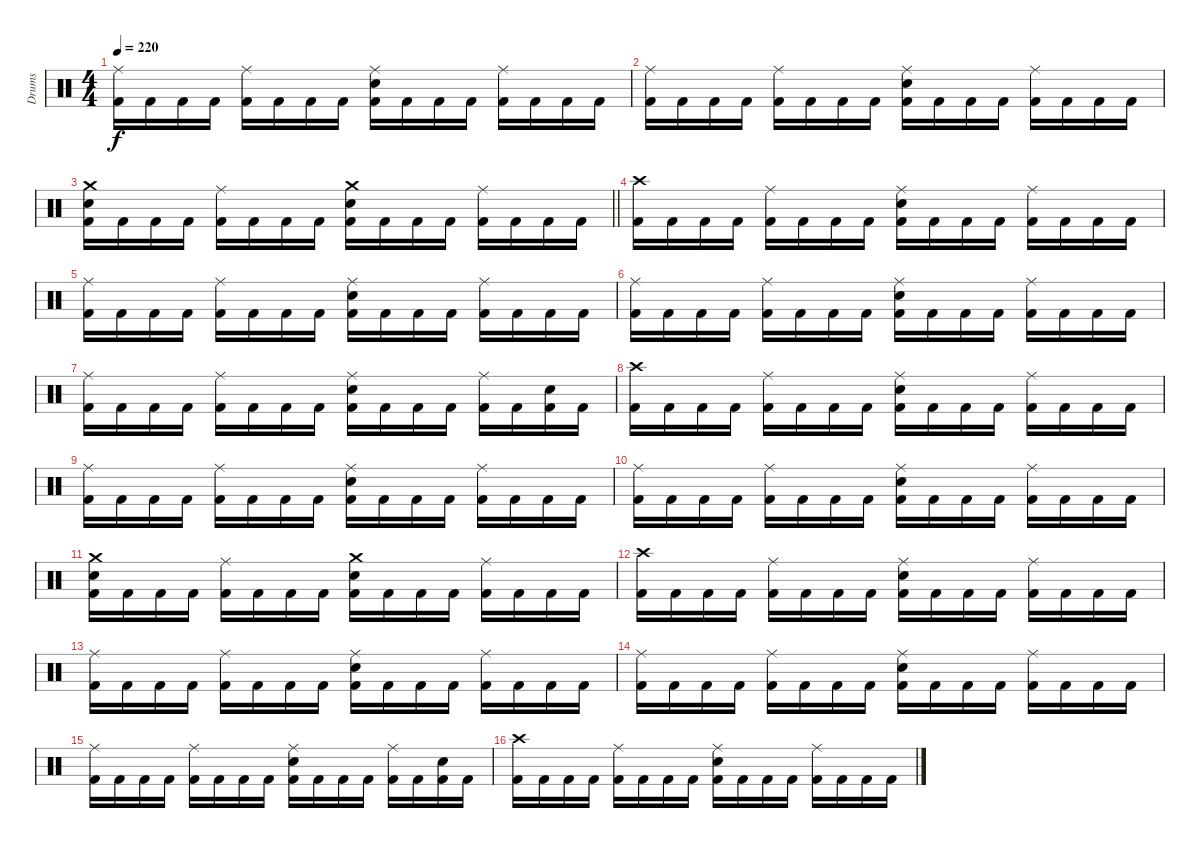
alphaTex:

\track ("Drums" "Drums") {instrument percussion}
\staff {score}
\articulation defaults
\ts (4 4)
\tempo 220
\clef neutral
\ks c
("Ride (middle)" "Kick (hit) 2").16{dy f} "Kick (hit) 2".16 "Kick (hit) 2".16 "Kick (hit) 2".16 ("Ride (middle)" "Kick (hit) 2").16 "Kick (hit) 2".16 "Kick (hit) 2".16 "Kick (hit) 2".16 ("Ride (middle)" "Snare (hit) 2" "Kick (hit) 2").16 "Kick (hit) 2".16 "Kick (hit) 2".16 "Kick (hit) 2".16 ("Ride (middle)" "Kick (hit) 2").16 "Kick (hit) 2".16 "Kick (hit) 2".16 "Kick (hit) 2".16 |
("Ride (middle)" "Kick (hit) 2").16 "Kick (hit) 2".16 "Kick (hit) 2".16 "Kick (hit) 2".16 ("Ride (middle)" "Kick (hit) 2").16 "Kick (hit) 2".16 "Kick (hit) 2".16 "Kick (hit) 2".16 ("Ride (middle)" "Snare (hit) 2" "Kick (hit) 2").16 "Kick (hit) 2".16 "Kick (hit) 2".16 "Kick (hit) 2".16 ("Ride (middle)" "Kick (hit) 2").16 "Kick (hit) 2".16 "Kick (hit) 2".16 "Kick (hit) 2".16 |
\barLineRight lightlight
("Crash medium (hit)" "Snare (hit) 2" "Kick (hit) 2").16 "Kick (hit) 2".16 "Kick (hit) 2".16 "Kick (hit) 2".16 ("Ride (middle)" "Kick (hit) 2").16 "Kick (hit) 2".16 "Kick (hit) 2".16 "Kick (hit) 2".16 ("Crash medium (hit)" "Snare (hit) 2" "Kick (hit) 2").16 "Kick (hit) 2".16 "Kick (hit) 2".16 "Kick (hit) 2".16 ("Ride (middle)" "Kick (hit) 2").16 "Kick (hit) 2".16 "Kick (hit) 2".16 "Kick (hit) 2".16 |
\section ("" "")
("Crash high (hit)" "Kick (hit) 2").16 "Kick (hit) 2".16 "Kick (hit) 2".16 "Kick (hit) 2".16 ("Ride (middle)" "Kick (hit) 2").16 "Kick (hit) 2".16 "Kick (hit) 2".16 "Kick (hit) 2".16 ("Ride (middle)" "Snare (hit) 2" "Kick (hit) 2").16 "Kick (hit) 2".16 "Kick (hit) 2".16 "Kick (hit) 2".16 ("Ride (middle)" "Kick (hit) 2").16 "Kick (hit) 2".16 "Kick (hit) 2".16 "Kick (hit) 2".16 |
("Ride (middle)" "Kick (hit) 2").16 "Kick (hit) 2".16 "Kick (hit) 2".16 "Kick (hit) 2".16 ("Ride (middle)" "Kick (hit) 2").16 "Kick (hit) 2".16 "Kick (hit) 2".16 "Kick (hit) 2".16 ("Ride (middle)" "Snare (hit) 2" "Kick (hit) 2").16 "Kick (hit) 2".16 "Kick (hit) 2".16 "Kick (hit) 2".16 ("Ride (middle)" "Kick (hit) 2").16 "Kick (hit) 2".16 "Kick (hit) 2".16 "Kick (hit) 2".16 |
("Ride (middle)" "Kick (hit) 2").16 "Kick (hit) 2".16 "Kick (hit) 2".16 "Kick (hit) 2".16 ("Ride (middle)" "Kick (hit) 2").16 "Kick (hit) 2".16 "Kick (hit) 2".16 "Kick (hit) 2".16 ("Ride (middle)" "Snare (hit) 2" "Kick (hit) 2").16 "Kick (hit) 2".16 "Kick (hit) 2".16 "Kick (hit) 2".16 ("Ride (middle)" "Kick (hit) 2").16 "Kick (hit) 2".16 "Kick (hit) 2".16 "Kick (hit) 2".16 |
("Ride (middle)" "Kick (hit) 2").16 "Kick (hit) 2".16 "Kick (hit) 2".16 "Kick (hit) 2".16 ("Ride (middle)" "Kick (hit) 2").16 "Kick (hit) 2".16 "Kick (hit) 2".16 "Kick (hit) 2".16 ("Ride (middle)" "Snare (hit) 2" "Kick (hit) 2").16 "Kick (hit) 2".16 "Kick (hit) 2".16 "Kick (hit) 2".16 ("Ride (middle)" "Kick (hit) 2").16 "Kick (hit) 2".16 ("Snare (hit) 2" "Kick (hit) 2").16 "Kick (hit) 2".16 |
("Crash high (hit)" "Kick (hit) 2").16 "Kick (hit) 2".16 "Kick (hit) 2".16 "Kick (hit) 2".16 ("Ride (middle)" "Kick (hit) 2").16 "Kick (hit) 2".16 "Kick (hit) 2".16 "Kick (hit) 2".16 ("Ride (middle)" "Snare (hit) 2" "Kick (hit) 2").16 "Kick (hit) 2".16 "Kick (hit) 2".16 "Kick (hit) 2".16 ("Ride (middle)" "Kick (hit) 2").16 "Kick (hit) 2".16 "Kick (hit) 2".16 "Kick (hit) 2".16 |
("Ride (middle)" "Kick (hit) 2").16 "Kick (hit) 2".16 "Kick (hit) 2".16 "Kick (hit) 2".16 ("Ride (middle)" "Kick (hit) 2").16 "Kick (hit) 2".16 "Kick (hit) 2".16 "Kick (hit) 2".16 ("Ride (middle)" "Snare (hit) 2" "Kick (hit) 2").16 "Kick (hit) 2".16 "Kick (hit) 2".16 "Kick (hit) 2".16 ("Ride (middle)" "Kick (hit) 2").16 "Kick (hit) 2".16 "Kick (hit) 2".16 "Kick (hit) 2".16 |
("Ride (middle)" "Kick (hit) 2").16 "Kick (hit) 2".16 "Kick (hit) 2".16 "Kick (hit) 2".16 ("Ride (middle)" "Kick (hit) 2").16 "Kick (hit) 2".16 "Kick (hit) 2".16 "Kick (hit) 2".16 ("Ride (middle)" "Snare (hit) 2" "Kick (hit) 2").16 "Kick (hit) 2".16 "Kick (hit) 2".16 "Kick (hit) 2".16 ("Ride (middle)" "Kick (hit) 2").16 "Kick (hit) 2".16 "Kick (hit) 2".16 "Kick (hit) 2".16 |
("Crash medium (hit)" "Snare (hit) 2" "Kick (hit) 2").16 "Kick (hit) 2".16 "Kick (hit) 2".16 "Kick (hit) 2".16 ("Ride (middle)" "Kick (hit) 2").16 "Kick (hit) 2".16 "Kick (hit) 2".16 "Kick (hit) 2".16 ("Crash medium (hit)" "Snare (hit) 2" "Kick (hit) 2").16 "Kick (hit) 2".16 "Kick (hit) 2".16 "Kick (hit) 2".16 ("Ride (middle)" "Kick (hit) 2").16 "Kick (hit) 2".16 "Kick (hit) 2".16 "Kick (hit) 2".16 |
("Crash high (hit)" "Kick (hit) 2").16 "Kick (hit) 2".16 "Kick (hit) 2".16 "Kick (hit) 2".16 ("Ride (middle)" "Kick (hit) 2").16 "Kick (hit) 2".16 "Kick (hit) 2".16 "Kick (hit) 2".16 ("Ride (middle)" "Snare (hit) 2" "Kick (hit) 2").16 "Kick (hit) 2".16 "Kick (hit) 2".16 "Kick (hit) 2".16 ("Ride (middle)" "Kick (hit) 2").16 "Kick (hit) 2".16 "Kick (hit) 2".16 "Kick (hit) 2".16 |
("Ride (middle)" "Kick (hit) 2").16 "Kick (hit) 2".16 "Kick (hit) 2".16 "Kick (hit) 2".16 ("Ride (middle)" "Kick (hit) 2").16 "Kick (hit) 2".16 "Kick (hit) 2".16 "Kick (hit) 2".16 ("Ride (middle)" "Snare (hit) 2" "Kick (hit) 2").16 "Kick (hit) 2".16 "Kick (hit) 2".16 "Kick (hit) 2".16 ("Ride (middle)" "Kick (hit) 2").16 "Kick (hit) 2".16 "Kick (hit) 2".16 "Kick (hit) 2".16 |
("Ride (middle)" "Kick (hit) 2").16 "Kick (hit) 2".16 "Kick (hit) 2".16 "Kick (hit) 2".16 ("Ride (middle)" "Kick (hit) 2").16 "Kick (hit) 2".16 "Kick (hit) 2".16 "Kick (hit) 2".16 ("Ride (middle)" "Snare (hit) 2" "Kick (hit) 2").16 "Kick (hit) 2".16 "Kick (hit) 2".16 "Kick (hit) 2".16 ("Ride (middle)" "Kick (hit) 2").16 "Kick (hit) 2".16 "Kick (hit) 2".16 "Kick (hit) 2".16 |
("Ride (middle)" "Kick (hit) 2").16 "Kick (hit) 2".16 "Kick (hit) 2".16 "Kick (hit) 2".16 ("Ride (middle)" "Kick (hit) 2").16 "Kick (hit) 2".16 "Kick (hit) 2".16 "Kick (hit) 2".16 ("Ride (middle)" "Snare (hit) 2" "Kick (hit) 2").16 "Kick (hit) 2".16 "Kick (hit) 2".16 "Kick (hit) 2".16 ("Ride (middle)" "Kick (hit) 2").16 "Kick (hit) 2".16 ("Snare (hit) 2" "Kick (hit) 2").16 "Kick (hit) 2".16 |
("Crash high (hit)" "Kick (hit) 2").16 "Kick (hit) 2".16 "Kick (hit) 2".16 "Kick (hit) 2".16 ("Ride (middle)" "Kick (hit) 2").16 "Kick (hit) 2".16 "Kick (hit) 2".16 "Kick (hit) 2".16 ("Ride (middle)" "Snare (hit) 2" "Kick (hit) 2").16 "Kick (hit) 2".16 "Kick (hit) 2".16 "Kick (hit) 2".16 ("Ride (middle)" "Kick (hit) 2").16 "Kick (hit) 2".16 "Kick (hit) 2".16 "Kick (hit) 2".16
